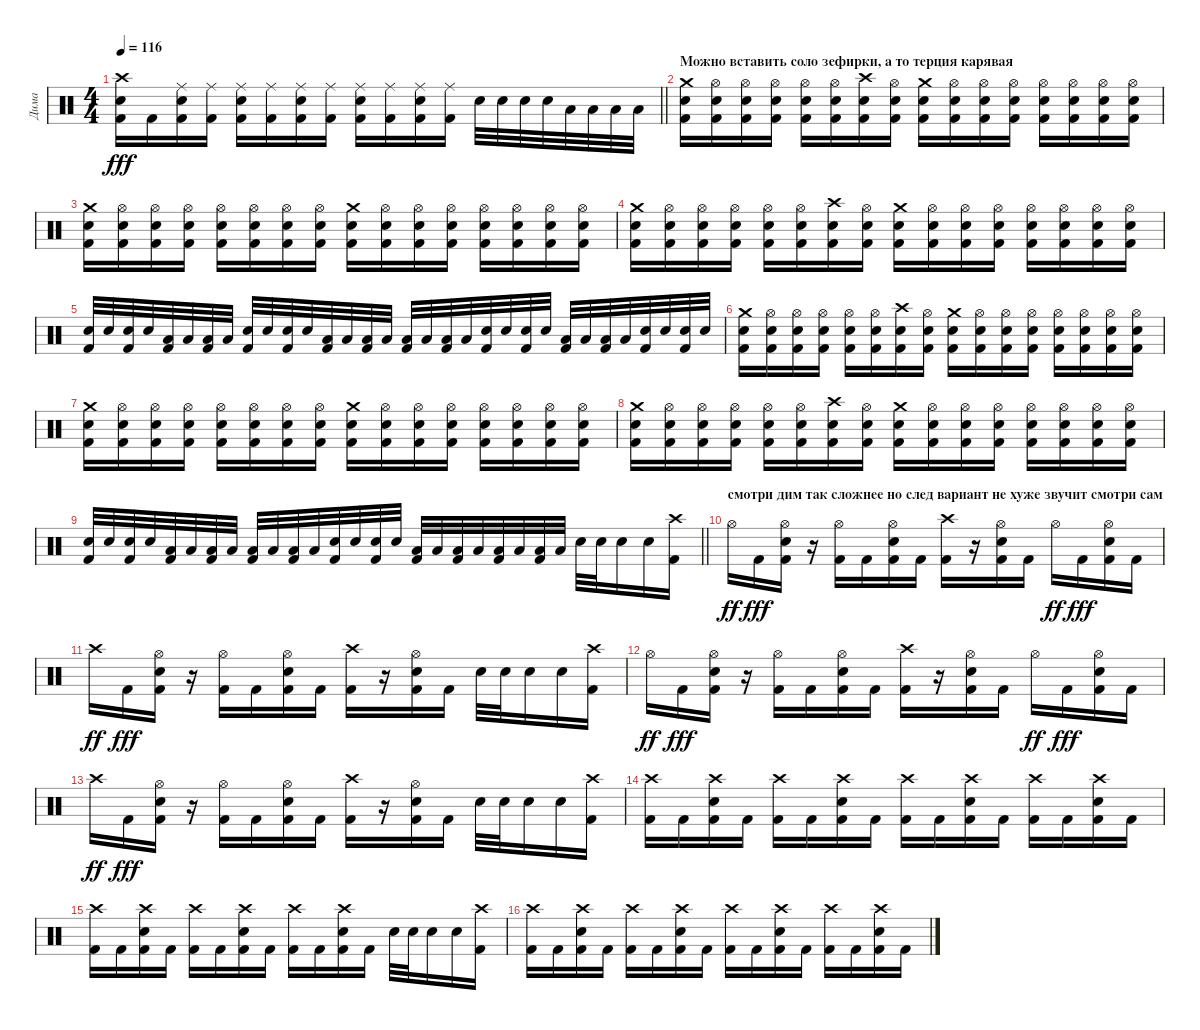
\track ("Дима " "Дима ") {instrument percussion}
\staff {score}
\articulation defaults
\ts (4 4)
\tempo 116
\clef neutral
\barLineRight lightlight
\ks c
("Crash high (hit)" "Snare (hit) 2" "Kick (hit) 2").16{dy fff} "Kick (hit) 2".16 ("Ride (middle)" "Snare (hit) 2" "Kick (hit) 2").16 ("Ride (middle)" "Kick (hit) 2").16 ("Ride (middle)" "Snare (hit) 2" "Kick (hit) 2").16 ("Ride (middle)" "Kick (hit) 2").16 ("Ride (middle)" "Snare (hit) 2" "Kick (hit) 2").16 ("Ride (middle)" "Kick (hit) 2").16 ("Ride (middle)" "Snare (hit) 2" "Kick (hit) 2").16 ("Ride (middle)" "Kick (hit) 2").16 ("Ride (middle)" "Snare (hit) 2" "Kick (hit) 2").16 ("Ride (middle)" "Kick (hit) 2").16 "Snare (hit) 2".32 "Snare (hit) 2".32 "Snare (hit) 2".32 "Snare (hit) 2".32 "Low Tom (hit)".32 "Low Tom (hit)".32 "Low Tom (hit)".32 "Low Tom (hit)".32 |
\section ("" "Можно вставить соло зефирки, а то терция карявая")
("Crash medium (hit)" "Snare (hit) 2" "Kick (hit) 2").16 ("Hi-Hat (open)" "Snare (hit) 2" "Kick (hit) 2").16 ("Hi-Hat (open)" "Snare (hit) 2" "Kick (hit) 2").16 ("Hi-Hat (open)" "Snare (hit) 2" "Kick (hit) 2").16 ("Hi-Hat (open)" "Snare (hit) 2" "Kick (hit) 2").16 ("Hi-Hat (open)" "Snare (hit) 2" "Kick (hit) 2").16 ("Crash high (hit)" "Snare (hit) 2" "Kick (hit) 2").16 ("Hi-Hat (open)" "Snare (hit) 2" "Kick (hit) 2").16 ("Crash medium (hit)" "Snare (hit) 2" "Kick (hit) 2").16 ("Hi-Hat (open)" "Snare (hit) 2" "Kick (hit) 2").16 ("Hi-Hat (open)" "Snare (hit) 2" "Kick (hit) 2").16 ("Hi-Hat (open)" "Snare (hit) 2" "Kick (hit) 2").16 ("Hi-Hat (open)" "Snare (hit) 2" "Kick (hit) 2").16 ("Hi-Hat (open)" "Snare (hit) 2" "Kick (hit) 2").16 ("Hi-Hat (open)" "Snare (hit) 2" "Kick (hit) 2").16 ("Hi-Hat (open)" "Snare (hit) 2" "Kick (hit) 2").16 |
("Crash medium (hit)" "Snare (hit) 2" "Kick (hit) 2").16 ("Hi-Hat (open)" "Snare (hit) 2" "Kick (hit) 2").16 ("Hi-Hat (open)" "Snare (hit) 2" "Kick (hit) 2").16 ("Hi-Hat (open)" "Snare (hit) 2" "Kick (hit) 2").16 ("Hi-Hat (open)" "Snare (hit) 2" "Kick (hit) 2").16 ("Hi-Hat (open)" "Snare (hit) 2" "Kick (hit) 2").16 ("Hi-Hat (open)" "Snare (hit) 2" "Kick (hit) 2").16 ("Hi-Hat (open)" "Snare (hit) 2" "Kick (hit) 2").16 ("Crash medium (hit)" "Snare (hit) 2" "Kick (hit) 2").16 ("Hi-Hat (open)" "Snare (hit) 2" "Kick (hit) 2").16 ("Hi-Hat (open)" "Snare (hit) 2" "Kick (hit) 2").16 ("Hi-Hat (open)" "Snare (hit) 2" "Kick (hit) 2").16 ("Hi-Hat (open)" "Snare (hit) 2" "Kick (hit) 2").16 ("Hi-Hat (open)" "Snare (hit) 2" "Kick (hit) 2").16 ("Hi-Hat (open)" "Snare (hit) 2" "Kick (hit) 2").16 ("Hi-Hat (open)" "Snare (hit) 2" "Kick (hit) 2").16 |
("Crash medium (hit)" "Snare (hit) 2" "Kick (hit) 2").16 ("Hi-Hat (open)" "Snare (hit) 2" "Kick (hit) 2").16 ("Hi-Hat (open)" "Snare (hit) 2" "Kick (hit) 2").16 ("Hi-Hat (open)" "Snare (hit) 2" "Kick (hit) 2").16 ("Hi-Hat (open)" "Snare (hit) 2" "Kick (hit) 2").16 ("Hi-Hat (open)" "Snare (hit) 2" "Kick (hit) 2").16 ("Crash high (hit)" "Snare (hit) 2" "Kick (hit) 2").16 ("Hi-Hat (open)" "Snare (hit) 2" "Kick (hit) 2").16 ("Crash medium (hit)" "Snare (hit) 2" "Kick (hit) 2").16 ("Hi-Hat (open)" "Snare (hit) 2" "Kick (hit) 2").16 ("Hi-Hat (open)" "Snare (hit) 2" "Kick (hit) 2").16 ("Hi-Hat (open)" "Snare (hit) 2" "Kick (hit) 2").16 ("Hi-Hat (open)" "Snare (hit) 2" "Kick (hit) 2").16 ("Hi-Hat (open)" "Snare (hit) 2" "Kick (hit) 2").16 ("Hi-Hat (open)" "Snare (hit) 2" "Kick (hit) 2").16 ("Hi-Hat (open)" "Snare (hit) 2" "Kick (hit) 2").16 |
("Snare (hit) 2" "Kick (hit) 2").32 "Snare (hit) 2".32 ("Snare (hit) 2" "Kick (hit) 2").32 "Snare (hit) 2".32 ("Low Tom (hit)" "Kick (hit) 2").32 "Low Tom (hit)".32 ("Low Tom (hit)" "Kick (hit) 2").32 "Low Tom (hit)".32 ("Snare (hit) 2" "Kick (hit) 2").32 "Snare (hit) 2".32 ("Snare (hit) 2" "Kick (hit) 2").32 "Snare (hit) 2".32 ("Low Tom (hit)" "Kick (hit) 2").32 "Low Tom (hit)".32 ("Low Tom (hit)" "Kick (hit) 2").32 "Low Tom (hit)".32 ("Low Tom (hit)" "Kick (hit) 2").32 "Low Tom (hit)".32 ("Low Tom (hit)" "Kick (hit) 2").32 "Low Tom (hit)".32 ("Snare (hit) 2" "Kick (hit) 2").32 "Snare (hit) 2".32 ("Snare (hit) 2" "Kick (hit) 2").32 "Snare (hit) 2".32 ("Low Tom (hit)" "Kick (hit) 2").32 "Low Tom (hit)".32 ("Low Tom (hit)" "Kick (hit) 2").32 "Low Tom (hit)".32 ("Snare (hit) 2" "Kick (hit) 2").32 "Snare (hit) 2".32 ("Snare (hit) 2" "Kick (hit) 2").32 "Snare (hit) 2".32 |
("Crash medium (hit)" "Snare (hit) 2" "Kick (hit) 2").16 ("Hi-Hat (open)" "Snare (hit) 2" "Kick (hit) 2").16 ("Hi-Hat (open)" "Snare (hit) 2" "Kick (hit) 2").16 ("Hi-Hat (open)" "Snare (hit) 2" "Kick (hit) 2").16 ("Hi-Hat (open)" "Snare (hit) 2" "Kick (hit) 2").16 ("Hi-Hat (open)" "Snare (hit) 2" "Kick (hit) 2").16 ("Crash high (hit)" "Snare (hit) 2" "Kick (hit) 2").16 ("Hi-Hat (open)" "Snare (hit) 2" "Kick (hit) 2").16 ("Crash medium (hit)" "Snare (hit) 2" "Kick (hit) 2").16 ("Hi-Hat (open)" "Snare (hit) 2" "Kick (hit) 2").16 ("Hi-Hat (open)" "Snare (hit) 2" "Kick (hit) 2").16 ("Hi-Hat (open)" "Snare (hit) 2" "Kick (hit) 2").16 ("Hi-Hat (open)" "Snare (hit) 2" "Kick (hit) 2").16 ("Hi-Hat (open)" "Snare (hit) 2" "Kick (hit) 2").16 ("Hi-Hat (open)" "Snare (hit) 2" "Kick (hit) 2").16 ("Hi-Hat (open)" "Snare (hit) 2" "Kick (hit) 2").16 |
("Crash medium (hit)" "Snare (hit) 2" "Kick (hit) 2").16 ("Hi-Hat (open)" "Snare (hit) 2" "Kick (hit) 2").16 ("Hi-Hat (open)" "Snare (hit) 2" "Kick (hit) 2").16 ("Hi-Hat (open)" "Snare (hit) 2" "Kick (hit) 2").16 ("Hi-Hat (open)" "Snare (hit) 2" "Kick (hit) 2").16 ("Hi-Hat (open)" "Snare (hit) 2" "Kick (hit) 2").16 ("Hi-Hat (open)" "Snare (hit) 2" "Kick (hit) 2").16 ("Hi-Hat (open)" "Snare (hit) 2" "Kick (hit) 2").16 ("Crash medium (hit)" "Snare (hit) 2" "Kick (hit) 2").16 ("Hi-Hat (open)" "Snare (hit) 2" "Kick (hit) 2").16 ("Hi-Hat (open)" "Snare (hit) 2" "Kick (hit) 2").16 ("Hi-Hat (open)" "Snare (hit) 2" "Kick (hit) 2").16 ("Hi-Hat (open)" "Snare (hit) 2" "Kick (hit) 2").16 ("Hi-Hat (open)" "Snare (hit) 2" "Kick (hit) 2").16 ("Hi-Hat (open)" "Snare (hit) 2" "Kick (hit) 2").16 ("Hi-Hat (open)" "Snare (hit) 2" "Kick (hit) 2").16 |
("Crash medium (hit)" "Snare (hit) 2" "Kick (hit) 2").16 ("Hi-Hat (open)" "Snare (hit) 2" "Kick (hit) 2").16 ("Hi-Hat (open)" "Snare (hit) 2" "Kick (hit) 2").16 ("Hi-Hat (open)" "Snare (hit) 2" "Kick (hit) 2").16 ("Hi-Hat (open)" "Snare (hit) 2" "Kick (hit) 2").16 ("Hi-Hat (open)" "Snare (hit) 2" "Kick (hit) 2").16 ("Crash high (hit)" "Snare (hit) 2" "Kick (hit) 2").16 ("Hi-Hat (open)" "Snare (hit) 2" "Kick (hit) 2").16 ("Crash medium (hit)" "Snare (hit) 2" "Kick (hit) 2").16 ("Hi-Hat (open)" "Snare (hit) 2" "Kick (hit) 2").16 ("Hi-Hat (open)" "Snare (hit) 2" "Kick (hit) 2").16 ("Hi-Hat (open)" "Snare (hit) 2" "Kick (hit) 2").16 ("Hi-Hat (open)" "Snare (hit) 2" "Kick (hit) 2").16 ("Hi-Hat (open)" "Snare (hit) 2" "Kick (hit) 2").16 ("Hi-Hat (open)" "Snare (hit) 2" "Kick (hit) 2").16 ("Hi-Hat (open)" "Snare (hit) 2" "Kick (hit) 2").16 |
\barLineRight lightlight
("Snare (hit) 2" "Kick (hit) 2").32 "Snare (hit) 2".32 ("Snare (hit) 2" "Kick (hit) 2").32 "Snare (hit) 2".32 ("Low Tom (hit)" "Kick (hit) 2").32 "Low Tom (hit)".32 ("Low Tom (hit)" "Kick (hit) 2").32 "Low Tom (hit)".32 ("Low Tom (hit)" "Kick (hit) 2").32 "Low Tom (hit)".32 ("Low Tom (hit)" "Kick (hit) 2").32 "Low Tom (hit)".32 ("Snare (hit) 2" "Kick (hit) 2").32 "Snare (hit) 2".32 ("Snare (hit) 2" "Kick (hit) 2").32 "Snare (hit) 2".32 ("Low Tom (hit)" "Kick (hit) 2").32 "Low Tom (hit)".32 ("Low Tom (hit)" "Kick (hit) 2").32 "Low Tom (hit)".32 ("Low Tom (hit)" "Kick (hit) 2").32 "Low Tom (hit)".32 ("Low Tom (hit)" "Kick (hit) 2").32 "Low Tom (hit)".32 "Snare (hit) 2".32 "Snare (hit) 2".32 "Snare (hit) 2".16 "Snare (hit) 2".16 ("Crash high (hit)" "Kick (hit) 2").16 |
\section ("" "смотри дим так сложнее но след вариант не хуже звучит смотри сам")
"Hi-Hat (open)".16{dy ff} "Kick (hit) 2".16{dy fff} ("Hi-Hat (open)" "Snare (hit) 2" "Kick (hit) 2").16 r.16 ("Hi-Hat (open)" "Kick (hit) 2").16 "Kick (hit) 2".16 ("Hi-Hat (open)" "Snare (hit) 2" "Kick (hit) 2").16 "Kick (hit) 2".16 ("Crash high (hit)" "Kick (hit) 2").16 r.16 ("Hi-Hat (open)" "Snare (hit) 2" "Kick (hit) 2").16 "Kick (hit) 2".16 "Hi-Hat (open)".16{dy ff} "Kick (hit) 2".16{dy fff} ("Hi-Hat (open)" "Snare (hit) 2" "Kick (hit) 2").16 "Kick (hit) 2".16 |
"Crash high (hit)".16{dy ff} "Kick (hit) 2".16{dy fff} ("Hi-Hat (open)" "Snare (hit) 2" "Kick (hit) 2").16 r.16 ("Hi-Hat (open)" "Kick (hit) 2").16 "Kick (hit) 2".16 ("Hi-Hat (open)" "Snare (hit) 2" "Kick (hit) 2").16 "Kick (hit) 2".16 ("Crash high (hit)" "Kick (hit) 2").16 r.16 ("Hi-Hat (open)" "Snare (hit) 2" "Kick (hit) 2").16 "Kick (hit) 2".16 "Snare (hit) 2".32 "Snare (hit) 2".32 "Snare (hit) 2".16 "Snare (hit) 2".16 ("Crash high (hit)" "Kick (hit) 2").16 |
"Hi-Hat (open)".16{dy ff} "Kick (hit) 2".16{dy fff} ("Hi-Hat (open)" "Snare (hit) 2" "Kick (hit) 2").16 r.16 ("Hi-Hat (open)" "Kick (hit) 2").16 "Kick (hit) 2".16 ("Hi-Hat (open)" "Snare (hit) 2" "Kick (hit) 2").16 "Kick (hit) 2".16 ("Crash high (hit)" "Kick (hit) 2").16 r.16 ("Hi-Hat (open)" "Snare (hit) 2" "Kick (hit) 2").16 "Kick (hit) 2".16 "Hi-Hat (open)".16{dy ff} "Kick (hit) 2".16{dy fff} ("Hi-Hat (open)" "Snare (hit) 2" "Kick (hit) 2").16 "Kick (hit) 2".16 |
"Crash high (hit)".16{dy ff} "Kick (hit) 2".16{dy fff} ("Hi-Hat (open)" "Snare (hit) 2" "Kick (hit) 2").16 r.16 ("Hi-Hat (open)" "Kick (hit) 2").16 "Kick (hit) 2".16 ("Hi-Hat (open)" "Snare (hit) 2" "Kick (hit) 2").16 "Kick (hit) 2".16 ("Crash high (hit)" "Kick (hit) 2").16 r.16 ("Hi-Hat (open)" "Snare (hit) 2" "Kick (hit) 2").16 "Kick (hit) 2".16 "Snare (hit) 2".32 "Snare (hit) 2".32 "Snare (hit) 2".16 "Snare (hit) 2".16 ("Crash high (hit)" "Kick (hit) 2").16 |
("Crash high (hit)" "Kick (hit) 2").16 "Kick (hit) 2".16 ("Crash high (hit)" "Snare (hit) 2" "Kick (hit) 2").16 "Kick (hit) 2".16 ("Crash high (hit)" "Kick (hit) 2").16 "Kick (hit) 2".16 ("Crash high (hit)" "Snare (hit) 2" "Kick (hit) 2").16 "Kick (hit) 2".16 ("Crash high (hit)" "Kick (hit) 2").16 "Kick (hit) 2".16 ("Crash high (hit)" "Snare (hit) 2" "Kick (hit) 2").16 "Kick (hit) 2".16 ("Crash high (hit)" "Kick (hit) 2").16 "Kick (hit) 2".16 ("Crash high (hit)" "Snare (hit) 2" "Kick (hit) 2").16 "Kick (hit) 2".16 |
("Crash high (hit)" "Kick (hit) 2").16 "Kick (hit) 2".16 ("Crash high (hit)" "Snare (hit) 2" "Kick (hit) 2").16 "Kick (hit) 2".16 ("Crash high (hit)" "Kick (hit) 2").16 "Kick (hit) 2".16 ("Crash high (hit)" "Snare (hit) 2" "Kick (hit) 2").16 "Kick (hit) 2".16 ("Crash high (hit)" "Kick (hit) 2").16 "Kick (hit) 2".16 ("Crash high (hit)" "Snare (hit) 2" "Kick (hit) 2").16 "Kick (hit) 2".16 "Snare (hit) 2".32 "Snare (hit) 2".32 "Snare (hit) 2".16 "Snare (hit) 2".16 ("Crash high (hit)" "Kick (hit) 2").16 |
("Crash high (hit)" "Kick (hit) 2").16 "Kick (hit) 2".16 ("Crash high (hit)" "Snare (hit) 2" "Kick (hit) 2").16 "Kick (hit) 2".16 ("Crash high (hit)" "Kick (hit) 2").16 "Kick (hit) 2".16 ("Crash high (hit)" "Snare (hit) 2" "Kick (hit) 2").16 "Kick (hit) 2".16 ("Crash high (hit)" "Kick (hit) 2").16 "Kick (hit) 2".16 ("Crash high (hit)" "Snare (hit) 2" "Kick (hit) 2").16 "Kick (hit) 2".16 ("Crash high (hit)" "Kick (hit) 2").16 "Kick (hit) 2".16 ("Crash high (hit)" "Snare (hit) 2" "Kick (hit) 2").16 "Kick (hit) 2".16
